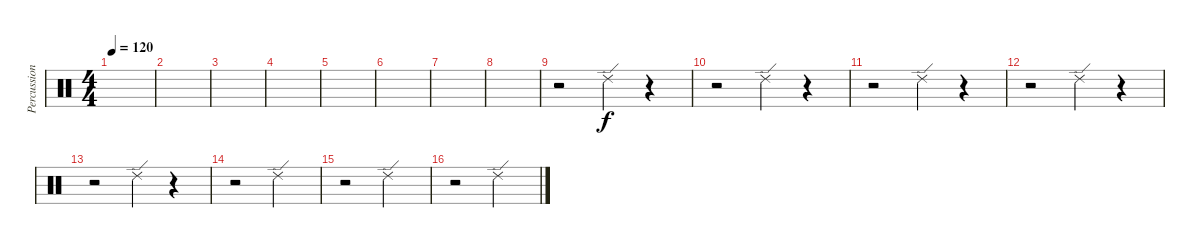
\track ("Percussions" "Percussion") {instrument percussion}
\staff {score}
\articulation defaults
\ts (4 4)
\tempo 120
\clef neutral
\ks c
|
|
|
|
|
|
|
|
r.2 "Ride (edge) 2".4 r.4 |
r.2 "Ride (edge) 2".4 r.4 |
r.2 "Ride (edge) 2".4 r.4 |
r.2 "Ride (edge) 2".4 r.4 |
r.2 "Ride (edge) 2".4 r.4 |
r.2 "Ride (edge) 2".2 |
r.2 "Ride (edge) 2".2 |
r.2 "Ride (edge) 2".2
